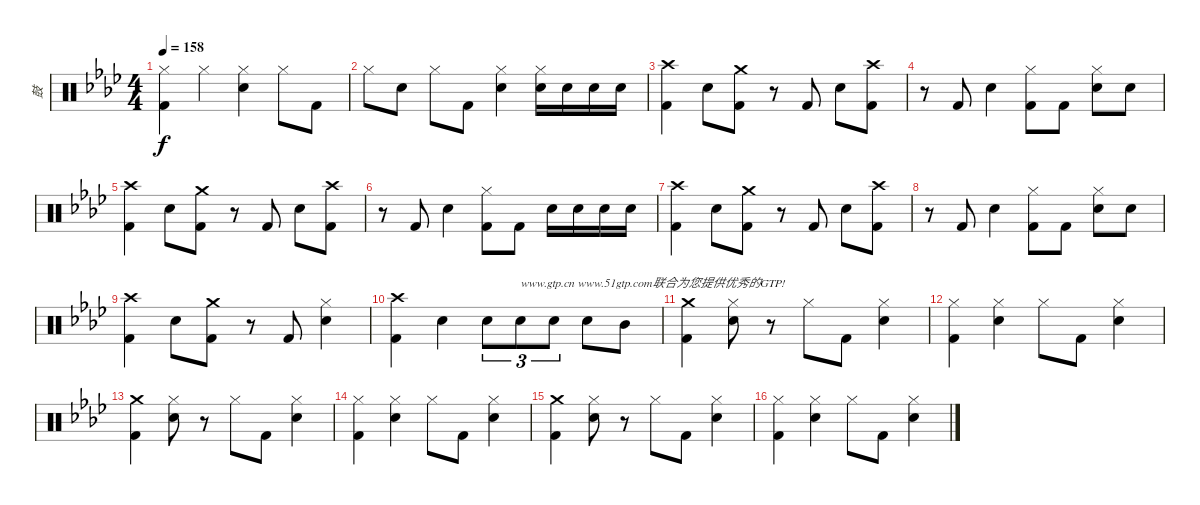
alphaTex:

\track ("鼓" "鼓") {instrument percussion}
\staff {score}
\articulation defaults
\ts (4 4)
\tempo 158
\clef neutral
\ks ab
("Hi-Hat (closed)" "Kick (hit) 2").4{dy f} "Hi-Hat (closed)".4 ("Hi-Hat (closed)" "Electric Snare (hit)").4 "Hi-Hat (closed)".8 "Kick (hit) 2".8 |
"Hi-Hat (closed)".8 "Electric Snare (hit)".8 "Hi-Hat (closed)".8 "Kick (hit) 2".8 ("Hi-Hat (closed)" "Electric Snare (hit)").4 ("Electric Snare (hit)" "Hi-Hat (closed)").16 "Electric Snare (hit)".16 "Electric Snare (hit)".16 "Electric Snare (hit)".16 |
("Crash high (hit)" "Kick (hit) 2").4 "Electric Snare (hit)".8 ("Crash medium (hit)" "Kick (hit) 2").8 r.8 "Kick (hit) 2".8 "Electric Snare (hit)".8 ("Crash high (hit)" "Kick (hit) 2").8 |
r.8 "Kick (hit) 2".8 "Electric Snare (hit)".4 ("Hi-Hat (closed)" "Kick (hit) 2").8 "Kick (hit) 2".8 ("Hi-Hat (closed)" "Electric Snare (hit)").8 "Electric Snare (hit)".8 |
("Crash high (hit)" "Kick (hit) 2").4 "Electric Snare (hit)".8 ("Crash medium (hit)" "Kick (hit) 2").8 r.8 "Kick (hit) 2".8 "Electric Snare (hit)".8 ("Crash high (hit)" "Kick (hit) 2").8 |
r.8 "Kick (hit) 2".8 "Electric Snare (hit)".4 ("Hi-Hat (closed)" "Kick (hit) 2").8 "Kick (hit) 2".8 "Electric Snare (hit)".16 "Electric Snare (hit)".16 "Electric Snare (hit)".16 "Electric Snare (hit)".16 |
("Crash high (hit)" "Kick (hit) 2").4 "Electric Snare (hit)".8 ("Crash medium (hit)" "Kick (hit) 2").8 r.8 "Kick (hit) 2".8 "Electric Snare (hit)".8 ("Crash high (hit)" "Kick (hit) 2").8 |
r.8 "Kick (hit) 2".8 "Electric Snare (hit)".4 ("Hi-Hat (closed)" "Kick (hit) 2").8 "Kick (hit) 2".8 ("Hi-Hat (closed)" "Electric Snare (hit)").8 "Electric Snare (hit)".8 |
("Crash high (hit)" "Kick (hit) 2").4 "Electric Snare (hit)".8 ("Crash medium (hit)" "Kick (hit) 2").8 r.8 "Kick (hit) 2".8 ("Hi-Hat (closed)" "Electric Snare (hit)").4 |
("Crash high (hit)" "Kick (hit) 2").4 "Electric Snare (hit)".4 "Electric Snare (hit)".8{tu (3 2)} "Electric Snare (hit)".8{tu (3 2) txt "www.gtp.cn www.51gtp.com联合为您提供优秀的GTP!"} "Electric Snare (hit)".8{tu (3 2)} "Electric Snare (hit)".8 "Mid Tom (hit)".8 |
("Crash medium (hit)" "Kick (hit) 2").4 ("Hi-Hat (closed)" "Electric Snare (hit)").8 r.8 "Hi-Hat (closed)".8 "Kick (hit) 2".8 ("Hi-Hat (closed)" "Electric Snare (hit)").4 |
("Hi-Hat (closed)" "Kick (hit) 2").4 ("Hi-Hat (closed)" "Electric Snare (hit)").4 "Hi-Hat (closed)".8 "Kick (hit) 2".8 ("Hi-Hat (closed)" "Electric Snare (hit)").4 |
("Crash medium (hit)" "Kick (hit) 2").4 ("Hi-Hat (closed)" "Electric Snare (hit)").8 r.8 "Hi-Hat (closed)".8 "Kick (hit) 2".8 ("Hi-Hat (closed)" "Electric Snare (hit)").4 |
("Hi-Hat (closed)" "Kick (hit) 2").4 ("Hi-Hat (closed)" "Electric Snare (hit)").4 "Hi-Hat (closed)".8 "Kick (hit) 2".8 ("Hi-Hat (closed)" "Electric Snare (hit)").4 |
("Crash medium (hit)" "Kick (hit) 2").4 ("Hi-Hat (closed)" "Electric Snare (hit)").8 r.8 "Hi-Hat (closed)".8 "Kick (hit) 2".8 ("Hi-Hat (closed)" "Electric Snare (hit)").4 |
("Hi-Hat (closed)" "Kick (hit) 2").4 ("Hi-Hat (closed)" "Electric Snare (hit)").4 "Hi-Hat (closed)".8 "Kick (hit) 2".8 ("Hi-Hat (closed)" "Electric Snare (hit)").4
